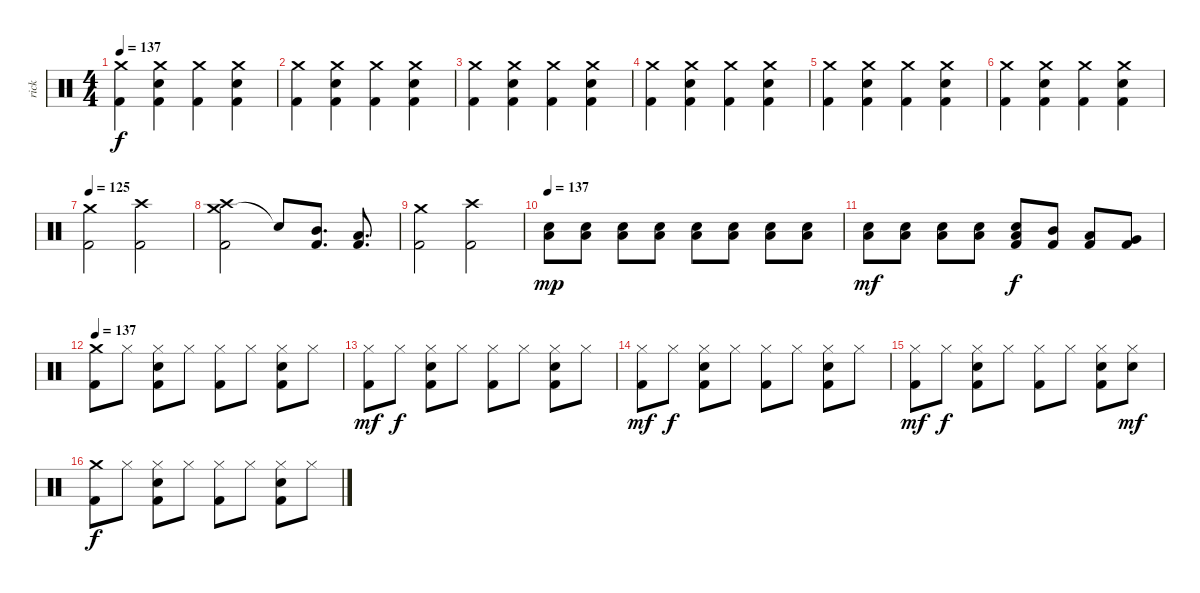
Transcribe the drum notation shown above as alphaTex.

\track ("rick" "rick") {instrument percussion}
\staff {score}
\articulation defaults
\ts (4 4)
\tempo 137
\clef neutral
\ks c
("Crash medium (hit)" "Kick (hit) 2").4{dy f} ("Crash medium (hit)" "Electric Snare (hit)" "Kick (hit) 2").4 ("Crash medium (hit)" "Kick (hit) 2").4 ("Crash medium (hit)" "Electric Snare (hit)" "Kick (hit) 2").4 |
("Crash medium (hit)" "Kick (hit) 2").4 ("Crash medium (hit)" "Electric Snare (hit)" "Kick (hit) 2").4 ("Crash medium (hit)" "Kick (hit) 2").4 ("Crash medium (hit)" "Electric Snare (hit)" "Kick (hit) 2").4 |
("Crash medium (hit)" "Kick (hit) 2").4 ("Crash medium (hit)" "Electric Snare (hit)" "Kick (hit) 2").4 ("Crash medium (hit)" "Kick (hit) 2").4 ("Crash medium (hit)" "Electric Snare (hit)" "Kick (hit) 2").4 |
("Crash medium (hit)" "Kick (hit) 2").4 ("Crash medium (hit)" "Electric Snare (hit)" "Kick (hit) 2").4 ("Crash medium (hit)" "Kick (hit) 2").4 ("Crash medium (hit)" "Electric Snare (hit)" "Kick (hit) 2").4 |
("Crash medium (hit)" "Kick (hit) 2").4 ("Crash medium (hit)" "Electric Snare (hit)" "Kick (hit) 2").4 ("Crash medium (hit)" "Kick (hit) 2").4 ("Crash medium (hit)" "Electric Snare (hit)" "Kick (hit) 2").4 |
("Crash medium (hit)" "Kick (hit) 2").4 ("Crash medium (hit)" "Electric Snare (hit)" "Kick (hit) 2").4 ("Crash medium (hit)" "Kick (hit) 2").4 ("Crash medium (hit)" "Electric Snare (hit)" "Kick (hit) 2").4 |
\tempo 125
("Crash medium (hit)" "Kick (hit) 2").2 ("Crash high (hit)" "Kick (hit) 2").2 |
("Crash medium (hit)" "Crash high (hit)" "Kick (hit) 2").2 "Snare (hit)"{t}.8 ("Mid Tom (hit)" "Kick (hit) 2").8{d} ("Low Tom (hit)" "Kick (hit) 2").8{d} |
("Crash medium (hit)" "Kick (hit) 2").2 ("Crash high (hit)" "Kick (hit) 2").2 |
\tempo 137
("Low Tom (hit)" "Electric Snare (hit)").8{dy mp} ("Low Tom (hit)" "Electric Snare (hit)").8 ("Low Tom (hit)" "Electric Snare (hit)").8 ("Low Tom (hit)" "Electric Snare (hit)").8 ("Low Tom (hit)" "Electric Snare (hit)").8 ("Low Tom (hit)" "Electric Snare (hit)").8 ("Low Tom (hit)" "Electric Snare (hit)").8 ("Low Tom (hit)" "Electric Snare (hit)").8 |
("Low Tom (hit)" "Electric Snare (hit)").8{dy mf} ("Low Tom (hit)" "Electric Snare (hit)").8 ("Low Tom (hit)" "Electric Snare (hit)").8 ("Low Tom (hit)" "Electric Snare (hit)").8 ("Low Tom (hit)" "Electric Snare (hit)" "Kick (hit) 2").8{dy f} ("Mid Tom (hit)" "Kick (hit) 2").8 ("Low Tom (hit)" "Kick (hit) 2").8 ("Very Low Tom (hit)" "Kick (hit) 2").8 |
\tempo 137
("Crash medium (hit)" "Kick (hit) 2").8 "Hi-Hat (closed)".8 ("Hi-Hat (closed)" "Electric Snare (hit)" "Kick (hit) 2").8 "Hi-Hat (closed)".8 ("Hi-Hat (closed)" "Kick (hit) 2").8 "Hi-Hat (closed)".8 ("Hi-Hat (closed)" "Electric Snare (hit)" "Kick (hit) 2").8 "Hi-Hat (closed)".8 |
("Hi-Hat (closed)" "Kick (hit) 2").8{dy mf} "Hi-Hat (closed)".8{dy f} ("Hi-Hat (closed)" "Electric Snare (hit)" "Kick (hit) 2").8 "Hi-Hat (closed)".8 ("Hi-Hat (closed)" "Kick (hit) 2").8 "Hi-Hat (closed)".8 ("Hi-Hat (closed)" "Electric Snare (hit)" "Kick (hit) 2").8 "Hi-Hat (closed)".8 |
("Hi-Hat (closed)" "Kick (hit) 2").8{dy mf} "Hi-Hat (closed)".8{dy f} ("Hi-Hat (closed)" "Electric Snare (hit)" "Kick (hit) 2").8 "Hi-Hat (closed)".8 ("Hi-Hat (closed)" "Kick (hit) 2").8 "Hi-Hat (closed)".8 ("Hi-Hat (closed)" "Electric Snare (hit)" "Kick (hit) 2").8 "Hi-Hat (closed)".8 |
("Hi-Hat (closed)" "Kick (hit) 2").8{dy mf} "Hi-Hat (closed)".8{dy f} ("Hi-Hat (closed)" "Electric Snare (hit)" "Kick (hit) 2").8 "Hi-Hat (closed)".8 ("Hi-Hat (closed)" "Kick (hit) 2").8 "Hi-Hat (closed)".8 ("Hi-Hat (closed)" "Electric Snare (hit)" "Kick (hit) 2").8 ("Hi-Hat (closed)" "Electric Snare (hit)").8{dy mf} |
("Crash medium (hit)" "Kick (hit) 2").8{dy f} "Hi-Hat (closed)".8 ("Hi-Hat (closed)" "Electric Snare (hit)" "Kick (hit) 2").8 "Hi-Hat (closed)".8 ("Hi-Hat (closed)" "Kick (hit) 2").8 "Hi-Hat (closed)".8 ("Hi-Hat (closed)" "Electric Snare (hit)" "Kick (hit) 2").8 "Hi-Hat (closed)".8
